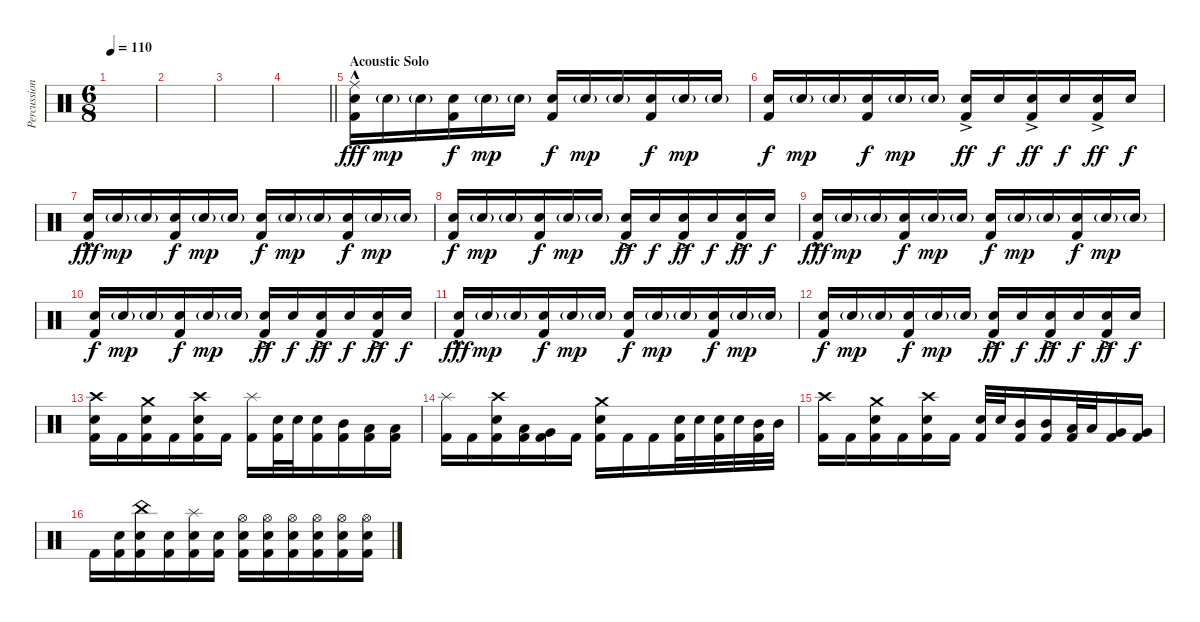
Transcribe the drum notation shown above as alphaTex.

\track ("Percussion" "Percussion") {instrument percussion}
\staff {score}
\articulation defaults
\ts (6 8)
\tempo 110
\clef neutral
\ks c
|
|
|
\barLineRight lightlight
|
\section ("" "Acoustic Solo")
("Ride (middle)"{hac} "Electric Snare (hit)"{hac} "Kick (hit) 2").16{dy fff volume 8} "Electric Snare (hit)"{g}.16{dy mp} "Electric Snare (hit)"{g}.16 ("Electric Snare (hit)" "Kick (hit) 2").16{dy f} "Electric Snare (hit)"{g}.16{dy mp} "Electric Snare (hit)"{g}.16 ("Electric Snare (hit)" "Kick (hit) 2").16{dy f} "Electric Snare (hit)"{g}.16{dy mp} "Electric Snare (hit)"{g}.16 ("Electric Snare (hit)" "Kick (hit) 2").16{dy f} "Electric Snare (hit)"{g}.16{dy mp} "Electric Snare (hit)"{g}.16 |
("Electric Snare (hit)" "Kick (hit) 2").16{dy f} "Electric Snare (hit)"{g}.16{dy mp} "Electric Snare (hit)"{g}.16 ("Electric Snare (hit)" "Kick (hit) 2").16{dy f} "Electric Snare (hit)"{g}.16{dy mp} "Electric Snare (hit)"{g}.16 ("Electric Snare (hit)"{ac} "Kick (hit) 2").16{dy ff} "Electric Snare (hit)".16{dy f} ("Electric Snare (hit)"{ac} "Kick (hit) 2").16{dy ff} "Electric Snare (hit)".16{dy f} ("Electric Snare (hit)"{ac} "Kick (hit) 2").16{dy ff} "Electric Snare (hit)".16{dy f} |
("Electric Snare (hit)"{hac} "Kick (hit) 2").16{dy fff} "Electric Snare (hit)"{g}.16{dy mp} "Electric Snare (hit)"{g}.16 ("Electric Snare (hit)" "Kick (hit) 2").16{dy f} "Electric Snare (hit)"{g}.16{dy mp} "Electric Snare (hit)"{g}.16 ("Electric Snare (hit)" "Kick (hit) 2").16{dy f} "Electric Snare (hit)"{g}.16{dy mp} "Electric Snare (hit)"{g}.16 ("Electric Snare (hit)" "Kick (hit) 2").16{dy f} "Electric Snare (hit)"{g}.16{dy mp} "Electric Snare (hit)"{g}.16 |
("Electric Snare (hit)" "Kick (hit) 2").16{dy f} "Electric Snare (hit)"{g}.16{dy mp} "Electric Snare (hit)"{g}.16 ("Electric Snare (hit)" "Kick (hit) 2").16{dy f} "Electric Snare (hit)"{g}.16{dy mp} "Electric Snare (hit)"{g}.16 ("Electric Snare (hit)"{ac} "Kick (hit) 2").16{dy ff} "Electric Snare (hit)".16{dy f} ("Electric Snare (hit)"{ac} "Kick (hit) 2").16{dy ff} "Electric Snare (hit)".16{dy f} ("Electric Snare (hit)"{ac} "Kick (hit) 2").16{dy ff} "Electric Snare (hit)".16{dy f} |
("Electric Snare (hit)"{hac} "Kick (hit) 2").16{dy fff} "Electric Snare (hit)"{g}.16{dy mp} "Electric Snare (hit)"{g}.16 ("Electric Snare (hit)" "Kick (hit) 2").16{dy f} "Electric Snare (hit)"{g}.16{dy mp} "Electric Snare (hit)"{g}.16 ("Electric Snare (hit)" "Kick (hit) 2").16{dy f} "Electric Snare (hit)"{g}.16{dy mp} "Electric Snare (hit)"{g}.16 ("Electric Snare (hit)" "Kick (hit) 2").16{dy f} "Electric Snare (hit)"{g}.16{dy mp} "Electric Snare (hit)"{g}.16 |
("Electric Snare (hit)" "Kick (hit) 2").16{dy f} "Electric Snare (hit)"{g}.16{dy mp} "Electric Snare (hit)"{g}.16 ("Electric Snare (hit)" "Kick (hit) 2").16{dy f} "Electric Snare (hit)"{g}.16{dy mp} "Electric Snare (hit)"{g}.16 ("Electric Snare (hit)"{ac} "Kick (hit) 2").16{dy ff} "Electric Snare (hit)".16{dy f} ("Electric Snare (hit)"{ac} "Kick (hit) 2").16{dy ff} "Electric Snare (hit)".16{dy f} ("Electric Snare (hit)"{ac} "Kick (hit) 2").16{dy ff} "Electric Snare (hit)".16{dy f} |
("Electric Snare (hit)"{hac} "Kick (hit) 2").16{dy fff} "Electric Snare (hit)"{g}.16{dy mp} "Electric Snare (hit)"{g}.16 ("Electric Snare (hit)" "Kick (hit) 2").16{dy f} "Electric Snare (hit)"{g}.16{dy mp} "Electric Snare (hit)"{g}.16 ("Electric Snare (hit)" "Kick (hit) 2").16{dy f} "Electric Snare (hit)"{g}.16{dy mp} "Electric Snare (hit)"{g}.16 ("Electric Snare (hit)" "Kick (hit) 2").16{dy f} "Electric Snare (hit)"{g}.16{dy mp} "Electric Snare (hit)"{g}.16 |
("Electric Snare (hit)" "Kick (hit) 2").16{dy f} "Electric Snare (hit)"{g}.16{dy mp} "Electric Snare (hit)"{g}.16 ("Electric Snare (hit)" "Kick (hit) 2").16{dy f} "Electric Snare (hit)"{g}.16{dy mp} "Electric Snare (hit)"{g}.16 ("Electric Snare (hit)"{ac} "Kick (hit) 2").16{dy ff} "Electric Snare (hit)".16{dy f} ("Electric Snare (hit)"{ac} "Kick (hit) 2").16{dy ff} "Electric Snare (hit)".16{dy f} ("Electric Snare (hit)"{ac} "Kick (hit) 2").16{dy ff} "Electric Snare (hit)".16{dy f} |
("Crash high (hit)" "Electric Snare (hit)" "Kick (hit) 2").16{volume 13} "Kick (hit) 2".16 ("Crash medium (hit)" "Electric Snare (hit)" "Kick (hit) 2").16 "Kick (hit) 2".16 ("Crash high (hit)" "Electric Snare (hit)" "Kick (hit) 2").16 "Kick (hit) 2".16 ("Splash (hit)" "Kick (hit) 2").16 ("Electric Snare (hit)" "Kick (hit) 2").32 "Electric Snare (hit)".32 ("Electric Snare (hit)" "Kick (hit) 2").16 ("Mid Tom (hit)" "Kick (hit) 2").16 ("Low Tom (hit)" "Kick (hit) 2").16 ("Low Tom (hit)" "Kick (hit) 2").16 |
("Splash (hit)" "Kick (hit) 2").16 "Kick (hit) 2".16 ("Crash high (hit)" "Electric Snare (hit)" "Kick (hit) 2").16 ("Low Tom (hit)" "Kick (hit) 2").16 ("Very Low Tom (hit)" "Kick (hit) 2").16 "Kick (hit) 2".16 ("Crash medium (hit)" "Electric Snare (hit)" "Kick (hit) 2").16 "Kick (hit) 2".16 "Kick (hit) 2".16 ("Electric Snare (hit)" "Kick (hit) 2").32 "Electric Snare (hit)".32 ("Electric Snare (hit)" "Kick (hit) 2").32 "Electric Snare (hit)".32 ("Mid Tom (hit)" "Kick (hit) 2").32 "Mid Tom (hit)".32 |
("Crash high (hit)" "Kick (hit) 2").16 "Kick (hit) 2".16 ("Crash medium (hit)" "Electric Snare (hit)" "Kick (hit) 2").16 "Kick (hit) 2".16 ("Crash high (hit)" "Electric Snare (hit)" "Kick (hit) 2").16 "Kick (hit) 2".16 ("Electric Snare (hit)" "Kick (hit) 2").32 "Electric Snare (hit)".32 ("Mid Tom (hit)" "Kick (hit) 2").16 ("Mid Tom (hit)" "Kick (hit) 2").16 ("Low Tom (hit)" "Kick (hit) 2").32 "Low Tom (hit)".32 ("Very Low Tom (hit)" "Kick (hit) 2").16 ("Very Low Tom (hit)" "Kick (hit) 2").16 |
"Kick (hit) 2".16 ("Electric Snare (hit)" "Kick (hit) 2").16 ("China (hit)" "Electric Snare (hit)" "Kick (hit) 2").16 ("Electric Snare (hit)" "Kick (hit) 2").16 ("Splash (hit)" "Electric Snare (hit)" "Kick (hit) 2").16 ("Electric Snare (hit)" "Kick (hit) 2").16 ("Hi-Hat (open)" "Electric Snare (hit)" "Kick (hit) 2").16 ("Hi-Hat (open)" "Electric Snare (hit)" "Kick (hit) 2").16 ("Hi-Hat (open)" "Electric Snare (hit)" "Kick (hit) 2").16 ("Hi-Hat (open)" "Electric Snare (hit)" "Kick (hit) 2").16 ("Hi-Hat (open)" "Electric Snare (hit)" "Kick (hit) 2").16 ("Hi-Hat (open)" "Electric Snare (hit)" "Kick (hit) 2").16
